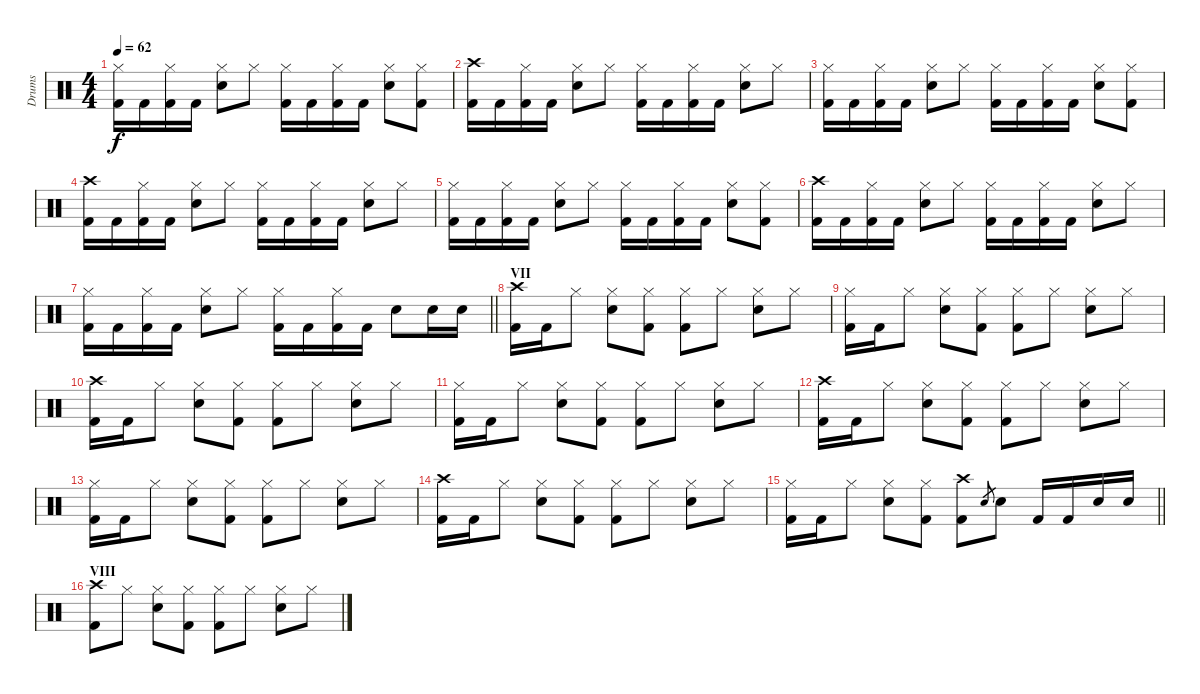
\track ("Drums" "Drums") {instrument percussion}
\staff {score}
\articulation defaults
\ts (4 4)
\tempo 62
\clef neutral
\ks c
("Hi-Hat (closed)" "Kick (hit) 2").16{dy f} "Kick (hit) 2".16 ("Hi-Hat (closed)" "Kick (hit) 2").16 "Kick (hit) 2".16 ("Hi-Hat (closed)" "Snare (hit) 2").8 "Hi-Hat (closed)".8 ("Hi-Hat (closed)" "Kick (hit) 2").16 "Kick (hit) 2".16 ("Hi-Hat (closed)" "Kick (hit) 2").16 "Kick (hit) 2".16 ("Hi-Hat (closed)" "Snare (hit) 2").8 ("Hi-Hat (closed)" "Kick (hit) 2").8 |
("Crash high (hit)" "Kick (hit) 2").16 "Kick (hit) 2".16 ("Hi-Hat (closed)" "Kick (hit) 2").16 "Kick (hit) 2".16 ("Hi-Hat (closed)" "Snare (hit) 2").8 "Hi-Hat (closed)".8 ("Hi-Hat (closed)" "Kick (hit) 2").16 "Kick (hit) 2".16 ("Hi-Hat (closed)" "Kick (hit) 2").16 "Kick (hit) 2".16 ("Hi-Hat (closed)" "Snare (hit) 2").8 "Hi-Hat (closed)".8 |
("Hi-Hat (closed)" "Kick (hit) 2").16 "Kick (hit) 2".16 ("Hi-Hat (closed)" "Kick (hit) 2").16 "Kick (hit) 2".16 ("Hi-Hat (closed)" "Snare (hit) 2").8 "Hi-Hat (closed)".8 ("Hi-Hat (closed)" "Kick (hit) 2").16 "Kick (hit) 2".16 ("Hi-Hat (closed)" "Kick (hit) 2").16 "Kick (hit) 2".16 ("Hi-Hat (closed)" "Snare (hit) 2").8 ("Hi-Hat (closed)" "Kick (hit) 2").8 |
("Crash high (hit)" "Kick (hit) 2").16 "Kick (hit) 2".16 ("Hi-Hat (closed)" "Kick (hit) 2").16 "Kick (hit) 2".16 ("Hi-Hat (closed)" "Snare (hit) 2").8 "Hi-Hat (closed)".8 ("Hi-Hat (closed)" "Kick (hit) 2").16 "Kick (hit) 2".16 ("Hi-Hat (closed)" "Kick (hit) 2").16 "Kick (hit) 2".16 ("Hi-Hat (closed)" "Snare (hit) 2").8 "Hi-Hat (closed)".8 |
("Hi-Hat (closed)" "Kick (hit) 2").16 "Kick (hit) 2".16 ("Hi-Hat (closed)" "Kick (hit) 2").16 "Kick (hit) 2".16 ("Hi-Hat (closed)" "Snare (hit) 2").8 "Hi-Hat (closed)".8 ("Hi-Hat (closed)" "Kick (hit) 2").16 "Kick (hit) 2".16 ("Hi-Hat (closed)" "Kick (hit) 2").16 "Kick (hit) 2".16 ("Hi-Hat (closed)" "Snare (hit) 2").8 ("Hi-Hat (closed)" "Kick (hit) 2").8 |
("Crash high (hit)" "Kick (hit) 2").16 "Kick (hit) 2".16 ("Hi-Hat (closed)" "Kick (hit) 2").16 "Kick (hit) 2".16 ("Hi-Hat (closed)" "Snare (hit) 2").8 "Hi-Hat (closed)".8 ("Hi-Hat (closed)" "Kick (hit) 2").16 "Kick (hit) 2".16 ("Hi-Hat (closed)" "Kick (hit) 2").16 "Kick (hit) 2".16 ("Hi-Hat (closed)" "Snare (hit) 2").8 "Hi-Hat (closed)".8 |
\barLineRight lightlight
("Hi-Hat (closed)" "Kick (hit) 2").16 "Kick (hit) 2".16 ("Hi-Hat (closed)" "Kick (hit) 2").16 "Kick (hit) 2".16 ("Hi-Hat (closed)" "Snare (hit) 2").8 "Hi-Hat (closed)".8 ("Hi-Hat (closed)" "Kick (hit) 2").16 "Kick (hit) 2".16 ("Hi-Hat (closed)" "Kick (hit) 2").16 "Kick (hit) 2".16 "Snare (hit) 2".8 "Snare (hit) 2".16 "Snare (hit) 2".16 |
\section ("" "VII")
("Crash high (hit)" "Kick (hit) 2").16 "Kick (hit) 2".16 "Hi-Hat (closed)".8 ("Hi-Hat (closed)" "Snare (hit) 2").8 ("Hi-Hat (closed)" "Kick (hit) 2").8 ("Hi-Hat (closed)" "Kick (hit) 2").8 "Hi-Hat (closed)".8 ("Hi-Hat (closed)" "Snare (hit) 2").8 "Hi-Hat (closed)".8 |
("Hi-Hat (closed)" "Kick (hit) 2").16 "Kick (hit) 2".16 "Hi-Hat (closed)".8 ("Hi-Hat (closed)" "Snare (hit) 2").8 ("Hi-Hat (closed)" "Kick (hit) 2").8 ("Hi-Hat (closed)" "Kick (hit) 2").8 "Hi-Hat (closed)".8 ("Hi-Hat (closed)" "Snare (hit) 2").8 "Hi-Hat (closed)".8 |
("Crash high (hit)" "Kick (hit) 2").16 "Kick (hit) 2".16 "Hi-Hat (closed)".8 ("Hi-Hat (closed)" "Snare (hit) 2").8 ("Hi-Hat (closed)" "Kick (hit) 2").8 ("Hi-Hat (closed)" "Kick (hit) 2").8 "Hi-Hat (closed)".8 ("Hi-Hat (closed)" "Snare (hit) 2").8 "Hi-Hat (closed)".8 |
("Hi-Hat (closed)" "Kick (hit) 2").16 "Kick (hit) 2".16 "Hi-Hat (closed)".8 ("Hi-Hat (closed)" "Snare (hit) 2").8 ("Hi-Hat (closed)" "Kick (hit) 2").8 ("Hi-Hat (closed)" "Kick (hit) 2").8 "Hi-Hat (closed)".8 ("Hi-Hat (closed)" "Snare (hit) 2").8 "Hi-Hat (closed)".8 |
("Crash high (hit)" "Kick (hit) 2").16 "Kick (hit) 2".16 "Hi-Hat (closed)".8 ("Hi-Hat (closed)" "Snare (hit) 2").8 ("Hi-Hat (closed)" "Kick (hit) 2").8 ("Hi-Hat (closed)" "Kick (hit) 2").8 "Hi-Hat (closed)".8 ("Hi-Hat (closed)" "Snare (hit) 2").8 "Hi-Hat (closed)".8 |
("Hi-Hat (closed)" "Kick (hit) 2").16 "Kick (hit) 2".16 "Hi-Hat (closed)".8 ("Hi-Hat (closed)" "Snare (hit) 2").8 ("Hi-Hat (closed)" "Kick (hit) 2").8 ("Hi-Hat (closed)" "Kick (hit) 2").8 "Hi-Hat (closed)".8 ("Hi-Hat (closed)" "Snare (hit) 2").8 "Hi-Hat (closed)".8 |
("Crash high (hit)" "Kick (hit) 2").16 "Kick (hit) 2".16 "Hi-Hat (closed)".8 ("Hi-Hat (closed)" "Snare (hit) 2").8 ("Hi-Hat (closed)" "Kick (hit) 2").8 ("Hi-Hat (closed)" "Kick (hit) 2").8 "Hi-Hat (closed)".8 ("Hi-Hat (closed)" "Snare (hit) 2").8 "Hi-Hat (closed)".8 |
\barLineRight lightlight
("Hi-Hat (closed)" "Kick (hit) 2").16 "Kick (hit) 2".16 "Hi-Hat (closed)".8 ("Hi-Hat (closed)" "Snare (hit) 2").8 ("Hi-Hat (closed)" "Kick (hit) 2").8 ("Crash high (hit)" "Kick (hit) 2").8 "Snare (hit) 2".8{gr} "Snare (hit) 2".8 "Kick (hit) 2".16 "Kick (hit) 2".16 "Snare (hit) 2".16 "Snare (hit) 2".16 |
\section ("" "VIII")
("Crash high (hit)" "Kick (hit) 2").8 "Hi-Hat (closed)".8 ("Hi-Hat (closed)" "Snare (hit) 2").8 ("Hi-Hat (closed)" "Kick (hit) 2").8 ("Hi-Hat (closed)" "Kick (hit) 2").8 "Hi-Hat (closed)".8 ("Hi-Hat (closed)" "Snare (hit) 2").8 "Hi-Hat (closed)".8
